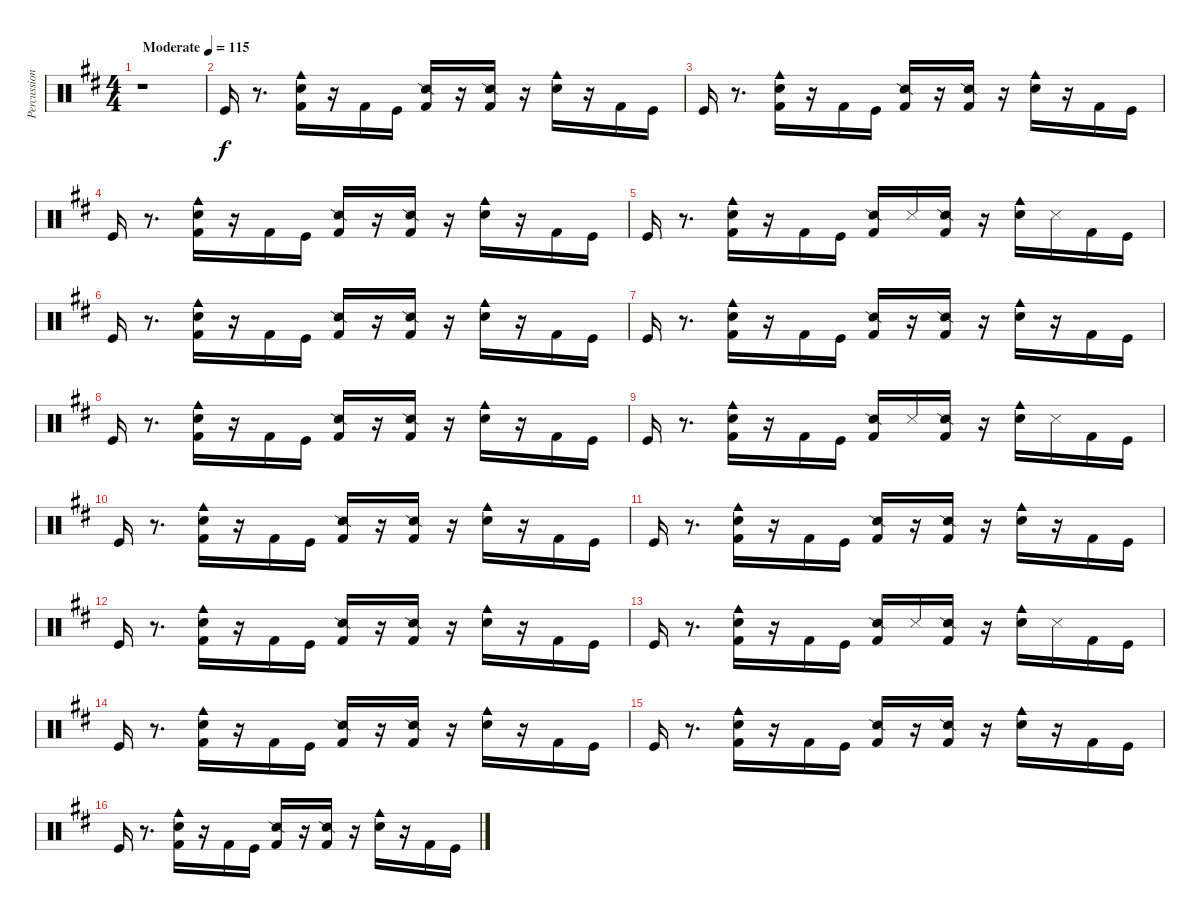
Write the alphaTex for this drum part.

\track ("Percussions" "Percussion") {instrument percussion}
\staff {score}
\articulation defaults
\ts (4 4)
\tempo (115 "Moderate")
\clef neutral
\ks bminor
r.1{dy f} |
"Kick (hit)".16 r.8{d} ("Kick (hit) 2" "Hand Clap (hit)" "Cowbell medium (hit)").16 r.16 "Kick (hit) 2".16 "Kick (hit)".16 ("Snare (side stick) 2" "Kick (hit) 2").16 r.16 ("Snare (side stick) 2" "Kick (hit) 2").16 r.16 ("Hand Clap (hit)" "Cowbell medium (hit)").16 r.16 "Kick (hit) 2".16 "Kick (hit)".16 |
"Kick (hit)".16 r.8{d} ("Kick (hit) 2" "Hand Clap (hit)" "Cowbell medium (hit)").16 r.16 "Kick (hit) 2".16 "Kick (hit)".16 ("Snare (side stick) 2" "Kick (hit) 2").16 r.16 ("Snare (side stick) 2" "Kick (hit) 2").16 r.16 ("Hand Clap (hit)" "Cowbell medium (hit)").16 r.16 "Kick (hit) 2".16 "Kick (hit)".16 |
"Kick (hit)".16 r.8{d} ("Kick (hit) 2" "Hand Clap (hit)" "Cowbell medium (hit)").16 r.16 "Kick (hit) 2".16 "Kick (hit)".16 ("Snare (side stick) 2" "Kick (hit) 2").16 r.16 ("Snare (side stick) 2" "Kick (hit) 2").16 r.16 ("Hand Clap (hit)" "Cowbell medium (hit)").16 r.16 "Kick (hit) 2".16 "Kick (hit)".16 |
"Kick (hit)".16 r.8{d} ("Kick (hit) 2" "Hand Clap (hit)" "Cowbell medium (hit)").16 r.16 "Kick (hit) 2".16 "Kick (hit)".16 ("Snare (side stick) 2" "Kick (hit) 2").16 "Metronome (hit)".16 ("Snare (side stick) 2" "Kick (hit) 2").16 r.16 ("Hand Clap (hit)" "Cowbell medium (hit)").16 "Metronome (hit)".16 "Kick (hit) 2".16 "Kick (hit)".16 |
"Kick (hit)".16 r.8{d} ("Kick (hit) 2" "Hand Clap (hit)" "Cowbell medium (hit)").16 r.16 "Kick (hit) 2".16 "Kick (hit)".16 ("Snare (side stick) 2" "Kick (hit) 2").16 r.16 ("Snare (side stick) 2" "Kick (hit) 2").16 r.16 ("Hand Clap (hit)" "Cowbell medium (hit)").16 r.16 "Kick (hit) 2".16 "Kick (hit)".16 |
"Kick (hit)".16 r.8{d} ("Kick (hit) 2" "Hand Clap (hit)" "Cowbell medium (hit)").16 r.16 "Kick (hit) 2".16 "Kick (hit)".16 ("Snare (side stick) 2" "Kick (hit) 2").16 r.16 ("Snare (side stick) 2" "Kick (hit) 2").16 r.16 ("Hand Clap (hit)" "Cowbell medium (hit)").16 r.16 "Kick (hit) 2".16 "Kick (hit)".16 |
"Kick (hit)".16 r.8{d} ("Kick (hit) 2" "Hand Clap (hit)" "Cowbell medium (hit)").16 r.16 "Kick (hit) 2".16 "Kick (hit)".16 ("Snare (side stick) 2" "Kick (hit) 2").16 r.16 ("Snare (side stick) 2" "Kick (hit) 2").16 r.16 ("Hand Clap (hit)" "Cowbell medium (hit)").16 r.16 "Kick (hit) 2".16 "Kick (hit)".16 |
"Kick (hit)".16 r.8{d} ("Kick (hit) 2" "Hand Clap (hit)" "Cowbell medium (hit)").16 r.16 "Kick (hit) 2".16 "Kick (hit)".16 ("Snare (side stick) 2" "Kick (hit) 2").16 "Metronome (hit)".16 ("Snare (side stick) 2" "Kick (hit) 2").16 r.16 ("Hand Clap (hit)" "Cowbell medium (hit)").16 "Metronome (hit)".16 "Kick (hit) 2".16 "Kick (hit)".16 |
"Kick (hit)".16 r.8{d} ("Kick (hit) 2" "Hand Clap (hit)" "Cowbell medium (hit)").16 r.16 "Kick (hit) 2".16 "Kick (hit)".16 ("Snare (side stick) 2" "Kick (hit) 2").16 r.16 ("Snare (side stick) 2" "Kick (hit) 2").16 r.16 ("Hand Clap (hit)" "Cowbell medium (hit)").16 r.16 "Kick (hit) 2".16 "Kick (hit)".16 |
"Kick (hit)".16 r.8{d} ("Kick (hit) 2" "Hand Clap (hit)" "Cowbell medium (hit)").16 r.16 "Kick (hit) 2".16 "Kick (hit)".16 ("Snare (side stick) 2" "Kick (hit) 2").16 r.16 ("Snare (side stick) 2" "Kick (hit) 2").16 r.16 ("Hand Clap (hit)" "Cowbell medium (hit)").16 r.16 "Kick (hit) 2".16 "Kick (hit)".16 |
"Kick (hit)".16 r.8{d} ("Kick (hit) 2" "Hand Clap (hit)" "Cowbell medium (hit)").16 r.16 "Kick (hit) 2".16 "Kick (hit)".16 ("Snare (side stick) 2" "Kick (hit) 2").16 r.16 ("Snare (side stick) 2" "Kick (hit) 2").16 r.16 ("Hand Clap (hit)" "Cowbell medium (hit)").16 r.16 "Kick (hit) 2".16 "Kick (hit)".16 |
"Kick (hit)".16 r.8{d} ("Kick (hit) 2" "Hand Clap (hit)" "Cowbell medium (hit)").16 r.16 "Kick (hit) 2".16 "Kick (hit)".16 ("Snare (side stick) 2" "Kick (hit) 2").16 "Metronome (hit)".16 ("Snare (side stick) 2" "Kick (hit) 2").16 r.16 ("Hand Clap (hit)" "Cowbell medium (hit)").16 "Metronome (hit)".16 "Kick (hit) 2".16 "Kick (hit)".16 |
"Kick (hit)".16 r.8{d} ("Kick (hit) 2" "Hand Clap (hit)" "Cowbell medium (hit)").16 r.16 "Kick (hit) 2".16 "Kick (hit)".16 ("Snare (side stick) 2" "Kick (hit) 2").16 r.16 ("Snare (side stick) 2" "Kick (hit) 2").16 r.16 ("Hand Clap (hit)" "Cowbell medium (hit)").16 r.16 "Kick (hit) 2".16 "Kick (hit)".16 |
"Kick (hit)".16 r.8{d} ("Kick (hit) 2" "Hand Clap (hit)" "Cowbell medium (hit)").16 r.16 "Kick (hit) 2".16 "Kick (hit)".16 ("Snare (side stick) 2" "Kick (hit) 2").16 r.16 ("Snare (side stick) 2" "Kick (hit) 2").16 r.16 ("Hand Clap (hit)" "Cowbell medium (hit)").16 r.16 "Kick (hit) 2".16 "Kick (hit)".16 |
"Kick (hit)".16 r.8{d} ("Kick (hit) 2" "Hand Clap (hit)" "Cowbell medium (hit)").16 r.16 "Kick (hit) 2".16 "Kick (hit)".16 ("Snare (side stick) 2" "Kick (hit) 2").16 r.16 ("Snare (side stick) 2" "Kick (hit) 2").16 r.16 ("Hand Clap (hit)" "Cowbell medium (hit)").16 r.16 "Kick (hit) 2".16 "Kick (hit)".16
